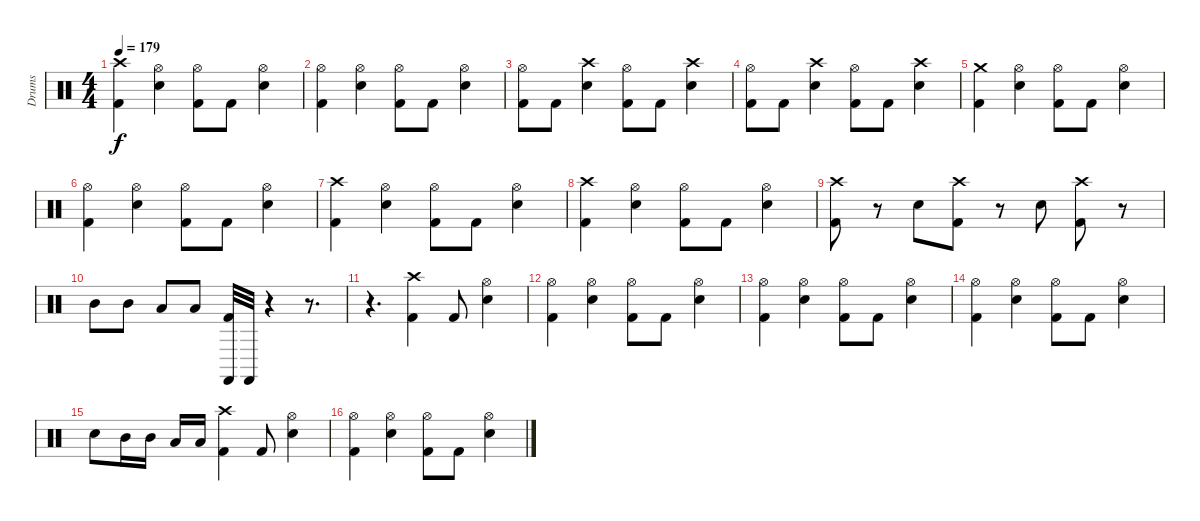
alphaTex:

\track ("Drums" "Drums") {instrument percussion}
\staff {score}
\articulation defaults
\ts (4 4)
\tempo 179
\clef neutral
\ks c
("Crash high (hit)" "Kick (hit) 2").4{dy f} ("Hi-Hat (open)" "Snare (hit) 2").4 ("Hi-Hat (open)" "Kick (hit) 2").8 "Kick (hit) 2".8 ("Hi-Hat (open)" "Snare (hit) 2").4 |
("Hi-Hat (open)" "Kick (hit) 2").4 ("Hi-Hat (open)" "Snare (hit) 2").4 ("Hi-Hat (open)" "Kick (hit) 2").8 "Kick (hit) 2".8 ("Hi-Hat (open)" "Snare (hit) 2").4 |
("Hi-Hat (open)" "Kick (hit) 2").8 "Kick (hit) 2".8 ("Crash high (hit)" "Snare (hit) 2").4 ("Hi-Hat (open)" "Kick (hit) 2").8 "Kick (hit) 2".8 ("Crash high (hit)" "Snare (hit) 2").4 |
("Hi-Hat (open)" "Kick (hit) 2").8 "Kick (hit) 2".8 ("Crash high (hit)" "Snare (hit) 2").4 ("Hi-Hat (open)" "Kick (hit) 2").8 "Kick (hit) 2".8 ("Crash high (hit)" "Snare (hit) 2").4 |
("Crash medium (hit)" "Kick (hit) 2").4 ("Hi-Hat (open)" "Snare (hit) 2").4 ("Hi-Hat (open)" "Kick (hit) 2").8 "Kick (hit) 2".8 ("Hi-Hat (open)" "Snare (hit) 2").4 |
("Hi-Hat (open)" "Kick (hit) 2").4 ("Hi-Hat (open)" "Snare (hit) 2").4 ("Hi-Hat (open)" "Kick (hit) 2").8 "Kick (hit) 2".8 ("Hi-Hat (open)" "Snare (hit) 2").4 |
("Crash high (hit)" "Kick (hit) 2").4 ("Hi-Hat (open)" "Snare (hit) 2").4 ("Hi-Hat (open)" "Kick (hit) 2").8 "Kick (hit) 2".8 ("Hi-Hat (open)" "Snare (hit) 2").4 |
("Crash high (hit)" "Kick (hit) 2").4 ("Hi-Hat (open)" "Snare (hit) 2").4 ("Hi-Hat (open)" "Kick (hit) 2").8 "Kick (hit) 2".8 ("Hi-Hat (open)" "Snare (hit) 2").4 |
("Crash high (hit)" "Kick (hit) 2").8 r.8 "Snare (hit) 2".8 ("Crash high (hit)" "Kick (hit) 2").8 r.8 "Snare (hit) 2".8 ("Crash high (hit)" "Kick (hit) 2").8 r.8 |
"Mid Tom (hit)".8 "Mid Tom (hit)".8 "Low Tom (hit)".8 "Low Tom (hit)".8 ("Castanets (hit)" "Kick (hit) 2").32 "Castanets (hit)".32 r.4 r.8{d} |
r.4{d} ("Crash high (hit)" "Kick (hit) 2").4 "Kick (hit) 2".8 ("Hi-Hat (open)" "Snare (hit) 2").4 |
("Hi-Hat (open)" "Kick (hit) 2").4 ("Hi-Hat (open)" "Snare (hit) 2").4 ("Hi-Hat (open)" "Kick (hit) 2").8 "Kick (hit) 2".8 ("Hi-Hat (open)" "Snare (hit) 2").4 |
("Hi-Hat (open)" "Kick (hit) 2").4 ("Hi-Hat (open)" "Snare (hit) 2").4 ("Hi-Hat (open)" "Kick (hit) 2").8 "Kick (hit) 2".8 ("Hi-Hat (open)" "Snare (hit) 2").4 |
("Hi-Hat (open)" "Kick (hit) 2").4 ("Hi-Hat (open)" "Snare (hit) 2").4 ("Hi-Hat (open)" "Kick (hit) 2").8 "Kick (hit) 2".8 ("Hi-Hat (open)" "Snare (hit) 2").4 |
"Snare (hit) 2".8 "Mid Tom (hit)".16 "Mid Tom (hit)".16 "Low Tom (hit)".16 "Low Tom (hit)".16 ("Crash high (hit)" "Kick (hit) 2").4 "Kick (hit) 2".8 ("Hi-Hat (open)" "Snare (hit) 2").4 |
("Hi-Hat (open)" "Kick (hit) 2").4 ("Hi-Hat (open)" "Snare (hit) 2").4 ("Hi-Hat (open)" "Kick (hit) 2").8 "Kick (hit) 2".8 ("Hi-Hat (open)" "Snare (hit) 2").4
